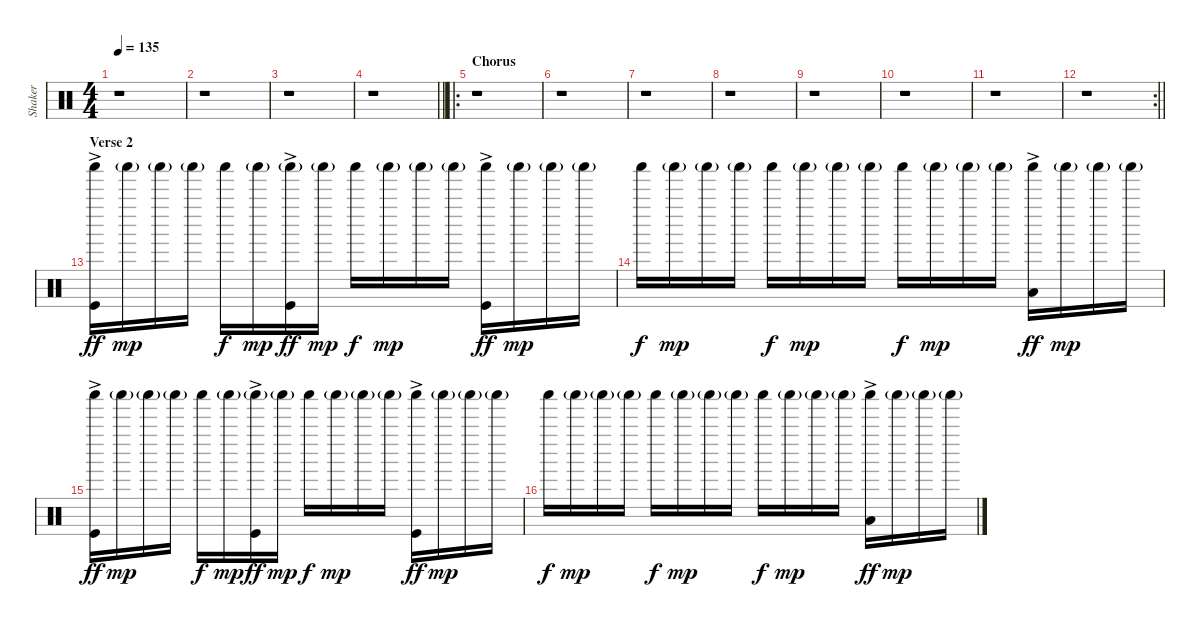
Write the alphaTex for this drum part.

\track ("Shaker" "Shaker") {instrument percussion}
\staff {score}
\articulation defaults
\ts (4 4)
\tempo 135
\clef neutral
\ks c
r.1{dy ff} |
r.1 |
r.1 |
\barLineRight lightlight
r.1 |
\ro
\section ("" "Chorus")
r.1 |
r.1 |
r.1 |
r.1 |
r.1 |
r.1 |
r.1 |
\rc 2
\barLineRight lightlight
r.1 |
\section ("" "Verse 2")
("Shaker (hit)" "Kick (hit)"{ac}).16 "Shaker (hit)"{g}.16{dy mp} "Shaker (hit)"{g}.16 "Shaker (hit)"{g}.16 "Shaker (hit)".16{dy f} "Shaker (hit)"{g}.16{dy mp} ("Shaker (hit)"{g} "Kick (hit)"{ac}).16{dy ff} "Shaker (hit)"{g}.16{dy mp} "Shaker (hit)".16{dy f} "Shaker (hit)"{g}.16{dy mp} "Shaker (hit)"{g}.16 "Shaker (hit)"{g}.16 ("Shaker (hit)" "Kick (hit)"{ac}).16{dy ff} "Shaker (hit)"{g}.16{dy mp} "Shaker (hit)"{g}.16 "Shaker (hit)"{g}.16 |
"Shaker (hit)".16{dy f} "Shaker (hit)"{g}.16{dy mp} "Shaker (hit)"{g}.16 "Shaker (hit)"{g}.16 "Shaker (hit)".16{dy f} "Shaker (hit)"{g}.16{dy mp} "Shaker (hit)"{g}.16 "Shaker (hit)"{g}.16 "Shaker (hit)".16{dy f} "Shaker (hit)"{g}.16{dy mp} "Shaker (hit)"{g}.16 "Shaker (hit)"{g}.16 ("Shaker (hit)" "Low Floor Tom (hit)"{ac}).16{dy ff} "Shaker (hit)"{g}.16{dy mp} "Shaker (hit)"{g}.16 "Shaker (hit)"{g}.16 |
("Shaker (hit)" "Kick (hit)"{ac}).16{dy ff} "Shaker (hit)"{g}.16{dy mp} "Shaker (hit)"{g}.16 "Shaker (hit)"{g}.16 "Shaker (hit)".16{dy f} "Shaker (hit)"{g}.16{dy mp} ("Shaker (hit)"{g} "Kick (hit)"{ac}).16{dy ff} "Shaker (hit)"{g}.16{dy mp} "Shaker (hit)".16{dy f} "Shaker (hit)"{g}.16{dy mp} "Shaker (hit)"{g}.16 "Shaker (hit)"{g}.16 ("Shaker (hit)" "Kick (hit)"{ac}).16{dy ff} "Shaker (hit)"{g}.16{dy mp} "Shaker (hit)"{g}.16 "Shaker (hit)"{g}.16 |
"Shaker (hit)".16{dy f} "Shaker (hit)"{g}.16{dy mp} "Shaker (hit)"{g}.16 "Shaker (hit)"{g}.16 "Shaker (hit)".16{dy f} "Shaker (hit)"{g}.16{dy mp} "Shaker (hit)"{g}.16 "Shaker (hit)"{g}.16 "Shaker (hit)".16{dy f} "Shaker (hit)"{g}.16{dy mp} "Shaker (hit)"{g}.16 "Shaker (hit)"{g}.16 ("Shaker (hit)" "Low Floor Tom (hit)"{ac}).16{dy ff} "Shaker (hit)"{g}.16{dy mp} "Shaker (hit)"{g}.16 "Shaker (hit)"{g}.16
